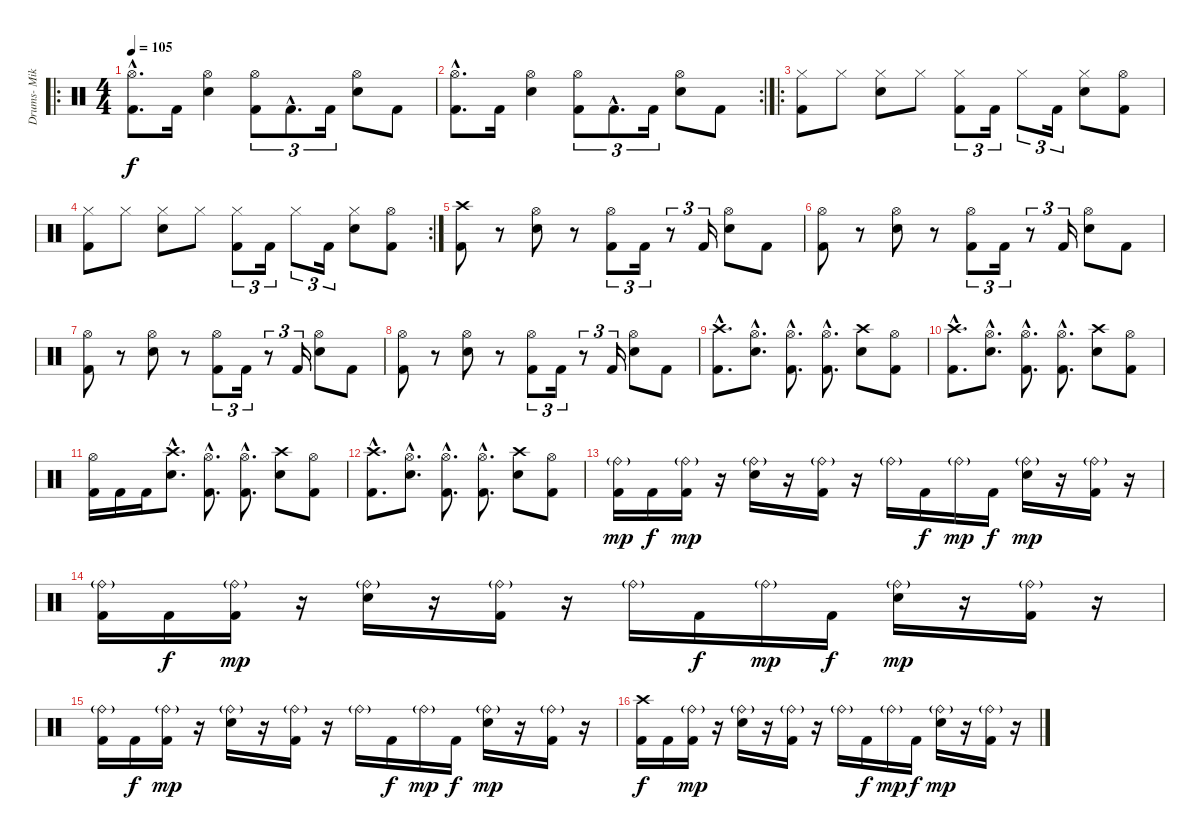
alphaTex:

\track ("Drums- Mike " "Drums- Mik") {instrument percussion}
\staff {score}
\articulation defaults
\ro
\ts (4 4)
\tempo 105
\clef neutral
\ks c
("Hi-Hat (open)"{hac} "Kick (hit) 2"{hac}).8{d dy f} "Kick (hit) 2".16 ("Hi-Hat (open)" "Snare (hit) 2").4 ("Hi-Hat (open)" "Kick (hit) 2").8{tu (3 2)} "Kick (hit) 2"{hac}.8{d tu (3 2)} "Kick (hit) 2".16{tu (3 2)} ("Hi-Hat (open)" "Snare (hit) 2").8 "Kick (hit) 2".8 |
\rc 2
("Hi-Hat (open)"{hac} "Kick (hit) 2"{hac}).8{d} "Kick (hit) 2".16 ("Hi-Hat (open)" "Snare (hit) 2").4 ("Hi-Hat (open)" "Kick (hit) 2").8{tu (3 2)} "Kick (hit) 2"{hac}.8{d tu (3 2)} "Kick (hit) 2".16{tu (3 2)} ("Hi-Hat (open)" "Snare (hit) 2").8 "Kick (hit) 2".8 |
\ro
("Hi-Hat (closed)" "Kick (hit) 2").8 "Hi-Hat (closed)".8 ("Hi-Hat (closed)" "Snare (hit) 2").8 "Hi-Hat (closed)".8 ("Hi-Hat (closed)" "Kick (hit) 2").8{tu (3 2)} "Kick (hit) 2".16{tu (3 2)} "Hi-Hat (closed)".8{tu (3 2)} "Kick (hit) 2".16{tu (3 2)} ("Hi-Hat (closed)" "Snare (hit) 2").8 ("Hi-Hat (open)" "Kick (hit) 2").8 |
\rc 2
("Hi-Hat (closed)" "Kick (hit) 2").8 "Hi-Hat (closed)".8 ("Hi-Hat (closed)" "Snare (hit) 2").8 "Hi-Hat (closed)".8 ("Hi-Hat (closed)" "Kick (hit) 2").8{tu (3 2)} "Kick (hit) 2".16{tu (3 2)} "Hi-Hat (closed)".8{tu (3 2)} "Kick (hit) 2".16{tu (3 2)} ("Hi-Hat (closed)" "Snare (hit) 2").8 ("Hi-Hat (open)" "Kick (hit) 2").8 |
("Crash high (hit)" "Kick (hit) 2").8 r.8 ("Hi-Hat (open)" "Snare (hit) 2").8 r.8 ("Hi-Hat (open)" "Kick (hit) 2").8{tu (3 2)} "Kick (hit) 2".16{tu (3 2)} r.8{tu (3 2)} "Kick (hit) 2".16{tu (3 2)} ("Hi-Hat (open)" "Snare (hit) 2").8 "Kick (hit) 2".8 |
("Hi-Hat (open)" "Kick (hit) 2").8 r.8 ("Hi-Hat (open)" "Snare (hit) 2").8 r.8 ("Hi-Hat (open)" "Kick (hit) 2").8{tu (3 2)} "Kick (hit) 2".16{tu (3 2)} r.8{tu (3 2)} "Kick (hit) 2".16{tu (3 2)} ("Hi-Hat (open)" "Snare (hit) 2").8 "Kick (hit) 2".8 |
("Hi-Hat (open)" "Kick (hit) 2").8 r.8 ("Hi-Hat (open)" "Snare (hit) 2").8 r.8 ("Hi-Hat (open)" "Kick (hit) 2").8{tu (3 2)} "Kick (hit) 2".16{tu (3 2)} r.8{tu (3 2)} "Kick (hit) 2".16{tu (3 2)} ("Hi-Hat (open)" "Snare (hit) 2").8 "Kick (hit) 2".8 |
("Hi-Hat (open)" "Kick (hit) 2").8 r.8 ("Hi-Hat (open)" "Snare (hit) 2").8 r.8 ("Hi-Hat (open)" "Kick (hit) 2").8{tu (3 2)} "Kick (hit) 2".16{tu (3 2)} r.8{tu (3 2)} "Kick (hit) 2".16{tu (3 2)} ("Hi-Hat (open)" "Snare (hit) 2").8 "Kick (hit) 2".8 |
("Crash high (hit)"{hac} "Kick (hit) 2"{hac}).8{d} ("Hi-Hat (open)"{hac} "Snare (hit) 2"{hac}).8{d} ("Hi-Hat (open)"{hac} "Kick (hit) 2"{hac}).8{d} ("Hi-Hat (open)"{hac} "Kick (hit) 2"{hac}).8{d} ("Crash high (hit)" "Snare (hit) 2").8 ("Hi-Hat (open)" "Kick (hit) 2").8 |
("Crash high (hit)"{hac} "Kick (hit) 2"{hac}).8{d} ("Hi-Hat (open)"{hac} "Snare (hit) 2"{hac}).8{d} ("Hi-Hat (open)"{hac} "Kick (hit) 2"{hac}).8{d} ("Hi-Hat (open)"{hac} "Kick (hit) 2"{hac}).8{d} ("Crash high (hit)" "Snare (hit) 2").8 ("Hi-Hat (open)" "Kick (hit) 2").8 |
("Hi-Hat (open)" "Kick (hit) 2").16 "Kick (hit) 2".16 "Kick (hit) 2".16 ("Crash high (hit)"{hac} "Snare (hit) 2"{hac}).8{d} ("Hi-Hat (open)"{hac} "Kick (hit) 2"{hac}).8{d} ("Hi-Hat (open)"{hac} "Kick (hit) 2"{hac}).8{d} ("Crash high (hit)" "Snare (hit) 2").8 ("Hi-Hat (open)" "Kick (hit) 2").8 |
("Crash high (hit)"{hac} "Kick (hit) 2"{hac}).8{d} ("Hi-Hat (open)"{hac} "Snare (hit) 2"{hac}).8{d} ("Hi-Hat (open)"{hac} "Kick (hit) 2"{hac}).8{d} ("Hi-Hat (open)"{hac} "Kick (hit) 2"{hac}).8{d} ("Crash high (hit)" "Snare (hit) 2").8 ("Hi-Hat (open)" "Kick (hit) 2").8 |
("Ride (bell)"{g} "Kick (hit) 2").16{dy mp} "Kick (hit) 2".16{dy f} ("Ride (bell)"{g} "Kick (hit) 2").16{dy mp} r.16 ("Ride (bell)"{g} "Snare (hit) 2").16 r.16 ("Ride (bell)"{g} "Kick (hit) 2").16 r.16 "Ride (bell)"{g}.16 "Kick (hit) 2".16{dy f} "Ride (bell)"{g}.16{dy mp} "Kick (hit) 2".16{dy f} ("Ride (bell)"{g} "Snare (hit) 2").16{dy mp} r.16 ("Ride (bell)"{g} "Kick (hit) 2").16 r.16 |
("Ride (bell)"{g} "Kick (hit) 2").16 "Kick (hit) 2".16{dy f} ("Ride (bell)"{g} "Kick (hit) 2").16{dy mp} r.16 ("Ride (bell)"{g} "Snare (hit) 2").16 r.16 ("Ride (bell)"{g} "Kick (hit) 2").16 r.16 "Ride (bell)"{g}.16 "Kick (hit) 2".16{dy f} "Ride (bell)"{g}.16{dy mp} "Kick (hit) 2".16{dy f} ("Ride (bell)"{g} "Snare (hit) 2").16{dy mp} r.16 ("Ride (bell)"{g} "Kick (hit) 2").16 r.16 |
("Ride (bell)"{g} "Kick (hit) 2").16 "Kick (hit) 2".16{dy f} ("Ride (bell)"{g} "Kick (hit) 2").16{dy mp} r.16 ("Ride (bell)"{g} "Snare (hit) 2").16 r.16 ("Ride (bell)"{g} "Kick (hit) 2").16 r.16 "Ride (bell)"{g}.16 "Kick (hit) 2".16{dy f} "Ride (bell)"{g}.16{dy mp} "Kick (hit) 2".16{dy f} ("Ride (bell)"{g} "Snare (hit) 2").16{dy mp} r.16 ("Ride (bell)"{g} "Kick (hit) 2").16 r.16 |
("Crash high (hit)" "Kick (hit) 2").16{dy f} "Kick (hit) 2".16 ("Ride (bell)"{g} "Kick (hit) 2").16{dy mp} r.16 ("Ride (bell)"{g} "Snare (hit) 2").16 r.16 ("Ride (bell)"{g} "Kick (hit) 2").16 r.16 "Ride (bell)"{g}.16 "Kick (hit) 2".16{dy f} "Ride (bell)"{g}.16{dy mp} "Kick (hit) 2".16{dy f} ("Ride (bell)"{g} "Snare (hit) 2").16{dy mp} r.16 ("Ride (bell)"{g} "Kick (hit) 2").16 r.16
